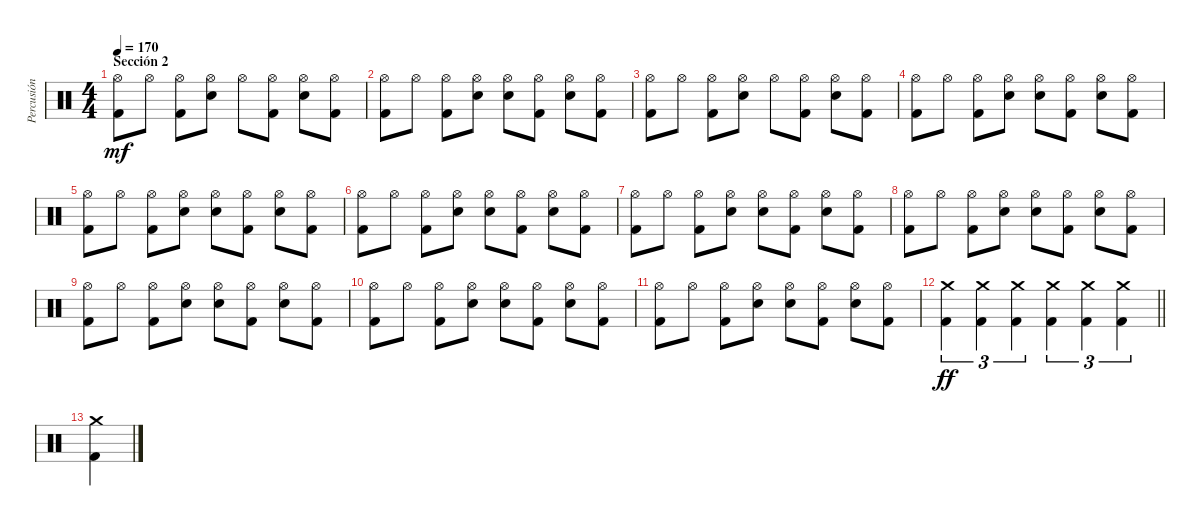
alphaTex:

\track ("Percusión" "Percusión") {instrument percussion}
\staff {score}
\articulation defaults
\ts (4 4)
\section ("" "Sección 2")
\tempo 170
\clef neutral
\ks c
("Hi-Hat (open)" "Kick (hit) 2").8{dy mf} "Hi-Hat (open)".8 ("Hi-Hat (open)" "Kick (hit) 2").8 ("Hi-Hat (open)" "Electric Snare (hit)").8 "Hi-Hat (open)".8 ("Hi-Hat (open)" "Kick (hit) 2").8 ("Hi-Hat (open)" "Electric Snare (hit)").8 ("Hi-Hat (open)" "Kick (hit) 2").8 |
("Hi-Hat (open)" "Kick (hit) 2").8 "Hi-Hat (open)".8 ("Hi-Hat (open)" "Kick (hit) 2").8 ("Hi-Hat (open)" "Electric Snare (hit)").8 ("Hi-Hat (open)" "Electric Snare (hit)").8 ("Hi-Hat (open)" "Kick (hit) 2").8 ("Hi-Hat (open)" "Electric Snare (hit)").8 ("Hi-Hat (open)" "Kick (hit) 2").8 |
("Hi-Hat (open)" "Kick (hit) 2").8 "Hi-Hat (open)".8 ("Hi-Hat (open)" "Kick (hit) 2").8 ("Hi-Hat (open)" "Electric Snare (hit)").8 "Hi-Hat (open)".8 ("Hi-Hat (open)" "Kick (hit) 2").8 ("Hi-Hat (open)" "Electric Snare (hit)").8 ("Hi-Hat (open)" "Kick (hit) 2").8 |
("Hi-Hat (open)" "Kick (hit) 2").8 "Hi-Hat (open)".8 ("Hi-Hat (open)" "Kick (hit) 2").8 ("Hi-Hat (open)" "Electric Snare (hit)").8 ("Hi-Hat (open)" "Electric Snare (hit)").8 ("Hi-Hat (open)" "Kick (hit) 2").8 ("Hi-Hat (open)" "Electric Snare (hit)").8 ("Hi-Hat (open)" "Kick (hit) 2").8 |
("Hi-Hat (open)" "Kick (hit) 2").8 "Hi-Hat (open)".8 ("Hi-Hat (open)" "Kick (hit) 2").8 ("Hi-Hat (open)" "Electric Snare (hit)").8 ("Hi-Hat (open)" "Electric Snare (hit)").8 ("Hi-Hat (open)" "Kick (hit) 2").8 ("Hi-Hat (open)" "Electric Snare (hit)").8 ("Hi-Hat (open)" "Kick (hit) 2").8 |
("Hi-Hat (open)" "Kick (hit) 2").8 "Hi-Hat (open)".8 ("Hi-Hat (open)" "Kick (hit) 2").8 ("Hi-Hat (open)" "Electric Snare (hit)").8 ("Hi-Hat (open)" "Electric Snare (hit)").8 ("Hi-Hat (open)" "Kick (hit) 2").8 ("Hi-Hat (open)" "Electric Snare (hit)").8 ("Hi-Hat (open)" "Kick (hit) 2").8 |
("Hi-Hat (open)" "Kick (hit) 2").8 "Hi-Hat (open)".8 ("Hi-Hat (open)" "Kick (hit) 2").8 ("Hi-Hat (open)" "Electric Snare (hit)").8 ("Hi-Hat (open)" "Electric Snare (hit)").8 ("Hi-Hat (open)" "Kick (hit) 2").8 ("Hi-Hat (open)" "Electric Snare (hit)").8 ("Hi-Hat (open)" "Kick (hit) 2").8 |
("Hi-Hat (open)" "Kick (hit) 2").8 "Hi-Hat (open)".8 ("Hi-Hat (open)" "Kick (hit) 2").8 ("Hi-Hat (open)" "Electric Snare (hit)").8 ("Hi-Hat (open)" "Electric Snare (hit)").8 ("Hi-Hat (open)" "Kick (hit) 2").8 ("Hi-Hat (open)" "Electric Snare (hit)").8 ("Hi-Hat (open)" "Kick (hit) 2").8 |
("Hi-Hat (open)" "Kick (hit) 2").8 "Hi-Hat (open)".8 ("Hi-Hat (open)" "Kick (hit) 2").8 ("Hi-Hat (open)" "Electric Snare (hit)").8 ("Hi-Hat (open)" "Electric Snare (hit)").8 ("Hi-Hat (open)" "Kick (hit) 2").8 ("Hi-Hat (open)" "Electric Snare (hit)").8 ("Hi-Hat (open)" "Kick (hit) 2").8 |
("Hi-Hat (open)" "Kick (hit) 2").8 "Hi-Hat (open)".8 ("Hi-Hat (open)" "Kick (hit) 2").8 ("Hi-Hat (open)" "Electric Snare (hit)").8 ("Hi-Hat (open)" "Electric Snare (hit)").8 ("Hi-Hat (open)" "Kick (hit) 2").8 ("Hi-Hat (open)" "Electric Snare (hit)").8 ("Hi-Hat (open)" "Kick (hit) 2").8 |
("Hi-Hat (open)" "Kick (hit) 2").8 "Hi-Hat (open)".8 ("Hi-Hat (open)" "Kick (hit) 2").8 ("Hi-Hat (open)" "Electric Snare (hit)").8 ("Hi-Hat (open)" "Electric Snare (hit)").8 ("Hi-Hat (open)" "Kick (hit) 2").8 ("Hi-Hat (open)" "Electric Snare (hit)").8 ("Hi-Hat (open)" "Kick (hit) 2").8 |
\barLineRight lightlight
("Crash medium (hit)" "Kick (hit) 2").4{tu (3 2) dy ff} ("Crash medium (hit)" "Kick (hit) 2").4{tu (3 2)} ("Crash medium (hit)" "Kick (hit) 2").4{tu (3 2)} ("Crash medium (hit)" "Kick (hit) 2").4{tu (3 2)} ("Crash medium (hit)" "Kick (hit) 2").4{tu (3 2)} ("Crash medium (hit)" "Kick (hit) 2").4{tu (3 2)} |
("Crash medium (hit)" "Kick (hit) 2").4
